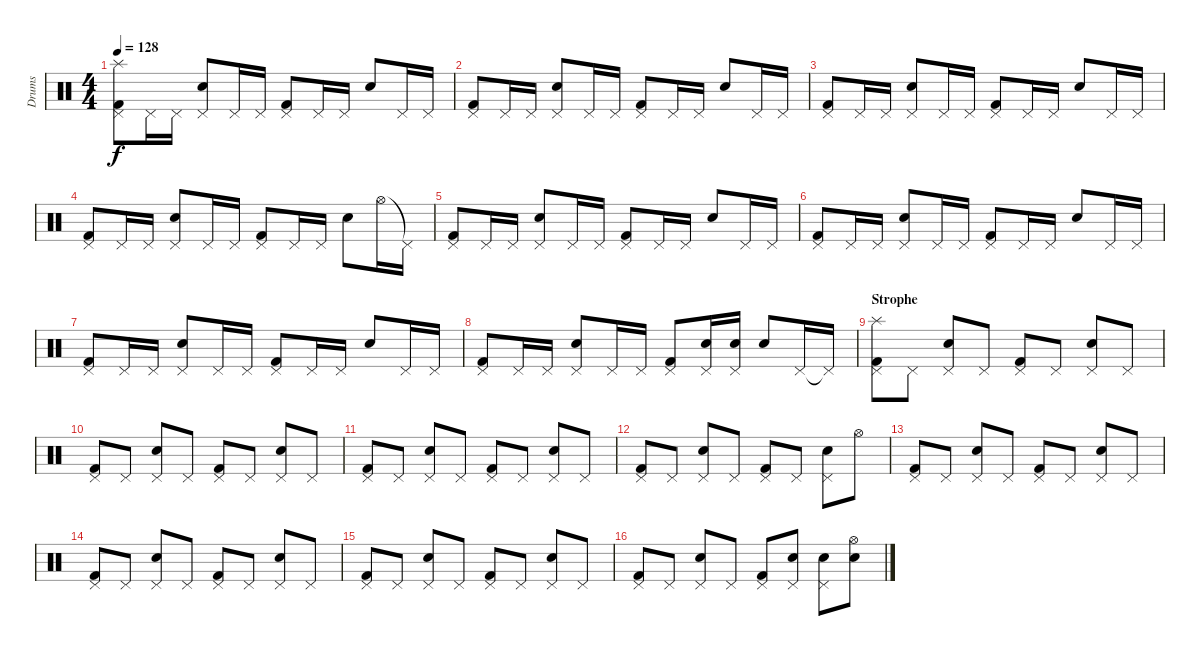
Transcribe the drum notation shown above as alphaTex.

\track ("Drums" "Drums") {instrument percussion}
\staff {score}
\articulation defaults
\ts (4 4)
\tempo 128
\clef neutral
\ks c
("Splash (hit)" "Kick (hit) 2" "Pedal Hi-Hat (hit)").8{dy f} "Pedal Hi-Hat (hit)".16 "Pedal Hi-Hat (hit)".16 ("Snare (hit) 2" "Pedal Hi-Hat (hit)").8 "Pedal Hi-Hat (hit)".16 "Pedal Hi-Hat (hit)".16 ("Kick (hit) 2" "Pedal Hi-Hat (hit)").8 "Pedal Hi-Hat (hit)".16 "Pedal Hi-Hat (hit)".16 "Snare (hit) 2".8 "Pedal Hi-Hat (hit)".16 "Pedal Hi-Hat (hit)".16 |
("Kick (hit) 2" "Pedal Hi-Hat (hit)").8 "Pedal Hi-Hat (hit)".16 "Pedal Hi-Hat (hit)".16 ("Snare (hit) 2" "Pedal Hi-Hat (hit)").8 "Pedal Hi-Hat (hit)".16 "Pedal Hi-Hat (hit)".16 ("Kick (hit) 2" "Pedal Hi-Hat (hit)").8 "Pedal Hi-Hat (hit)".16 "Pedal Hi-Hat (hit)".16 "Snare (hit) 2".8 "Pedal Hi-Hat (hit)".16 "Pedal Hi-Hat (hit)".16 |
("Kick (hit) 2" "Pedal Hi-Hat (hit)").8 "Pedal Hi-Hat (hit)".16 "Pedal Hi-Hat (hit)".16 ("Snare (hit) 2" "Pedal Hi-Hat (hit)").8 "Pedal Hi-Hat (hit)".16 "Pedal Hi-Hat (hit)".16 ("Kick (hit) 2" "Pedal Hi-Hat (hit)").8 "Pedal Hi-Hat (hit)".16 "Pedal Hi-Hat (hit)".16 "Snare (hit) 2".8 "Pedal Hi-Hat (hit)".16 "Pedal Hi-Hat (hit)".16 |
("Kick (hit) 2" "Pedal Hi-Hat (hit)").8 "Pedal Hi-Hat (hit)".16 "Pedal Hi-Hat (hit)".16 ("Snare (hit) 2" "Pedal Hi-Hat (hit)").8 "Pedal Hi-Hat (hit)".16 "Pedal Hi-Hat (hit)".16 ("Kick (hit) 2" "Pedal Hi-Hat (hit)").8 "Pedal Hi-Hat (hit)".16 "Pedal Hi-Hat (hit)".16 "Snare (hit) 2".8 "Hi-Hat (open)".16 "Pedal Hi-Hat (hit)"{t}.16 |
("Kick (hit) 2" "Pedal Hi-Hat (hit)").8 "Pedal Hi-Hat (hit)".16 "Pedal Hi-Hat (hit)".16 ("Snare (hit) 2" "Pedal Hi-Hat (hit)").8 "Pedal Hi-Hat (hit)".16 "Pedal Hi-Hat (hit)".16 ("Kick (hit) 2" "Pedal Hi-Hat (hit)").8 "Pedal Hi-Hat (hit)".16 "Pedal Hi-Hat (hit)".16 "Snare (hit) 2".8 "Pedal Hi-Hat (hit)".16 "Pedal Hi-Hat (hit)".16 |
("Kick (hit) 2" "Pedal Hi-Hat (hit)").8 "Pedal Hi-Hat (hit)".16 "Pedal Hi-Hat (hit)".16 ("Snare (hit) 2" "Pedal Hi-Hat (hit)").8 "Pedal Hi-Hat (hit)".16 "Pedal Hi-Hat (hit)".16 ("Kick (hit) 2" "Pedal Hi-Hat (hit)").8 "Pedal Hi-Hat (hit)".16 "Pedal Hi-Hat (hit)".16 "Snare (hit) 2".8 "Pedal Hi-Hat (hit)".16 "Pedal Hi-Hat (hit)".16 |
("Kick (hit) 2" "Pedal Hi-Hat (hit)").8 "Pedal Hi-Hat (hit)".16 "Pedal Hi-Hat (hit)".16 ("Snare (hit) 2" "Pedal Hi-Hat (hit)").8 "Pedal Hi-Hat (hit)".16 "Pedal Hi-Hat (hit)".16 ("Kick (hit) 2" "Pedal Hi-Hat (hit)").8 "Pedal Hi-Hat (hit)".16 "Pedal Hi-Hat (hit)".16 "Snare (hit) 2".8 "Pedal Hi-Hat (hit)".16 "Pedal Hi-Hat (hit)".16 |
("Kick (hit) 2" "Pedal Hi-Hat (hit)").8 "Pedal Hi-Hat (hit)".16 "Pedal Hi-Hat (hit)".16 ("Snare (hit) 2" "Pedal Hi-Hat (hit)").8 "Pedal Hi-Hat (hit)".16 "Pedal Hi-Hat (hit)".16 ("Kick (hit) 2" "Pedal Hi-Hat (hit)").8 ("Snare (hit) 2" "Pedal Hi-Hat (hit)").16 ("Snare (hit) 2" "Pedal Hi-Hat (hit)").16 "Snare (hit) 2".8 "Pedal Hi-Hat (hit)".16 "Pedal Hi-Hat (hit)"{t}.16 |
\section ("" "Strophe")
("Pedal Hi-Hat (hit)" "Splash (hit)" "Kick (hit) 2").8 "Pedal Hi-Hat (hit)".8 ("Pedal Hi-Hat (hit)" "Snare (hit) 2").8 "Pedal Hi-Hat (hit)".8 ("Pedal Hi-Hat (hit)" "Kick (hit) 2").8 "Pedal Hi-Hat (hit)".8 ("Pedal Hi-Hat (hit)" "Snare (hit) 2").8 "Pedal Hi-Hat (hit)".8 |
("Pedal Hi-Hat (hit)" "Kick (hit) 2").8 "Pedal Hi-Hat (hit)".8 ("Pedal Hi-Hat (hit)" "Snare (hit) 2").8 "Pedal Hi-Hat (hit)".8 ("Pedal Hi-Hat (hit)" "Kick (hit) 2").8 "Pedal Hi-Hat (hit)".8 ("Pedal Hi-Hat (hit)" "Snare (hit) 2").8 "Pedal Hi-Hat (hit)".8 |
("Pedal Hi-Hat (hit)" "Kick (hit) 2").8 "Pedal Hi-Hat (hit)".8 ("Pedal Hi-Hat (hit)" "Snare (hit) 2").8 "Pedal Hi-Hat (hit)".8 ("Pedal Hi-Hat (hit)" "Kick (hit) 2").8 "Pedal Hi-Hat (hit)".8 ("Pedal Hi-Hat (hit)" "Snare (hit) 2").8 "Pedal Hi-Hat (hit)".8 |
("Pedal Hi-Hat (hit)" "Kick (hit) 2").8 "Pedal Hi-Hat (hit)".8 ("Pedal Hi-Hat (hit)" "Snare (hit) 2").8 "Pedal Hi-Hat (hit)".8 ("Pedal Hi-Hat (hit)" "Kick (hit) 2").8 "Pedal Hi-Hat (hit)".8 ("Pedal Hi-Hat (hit)" "Snare (hit) 2").8 "Hi-Hat (open)".8 |
("Pedal Hi-Hat (hit)" "Kick (hit) 2").8 "Pedal Hi-Hat (hit)".8 ("Pedal Hi-Hat (hit)" "Snare (hit) 2").8 "Pedal Hi-Hat (hit)".8 ("Pedal Hi-Hat (hit)" "Kick (hit) 2").8 "Pedal Hi-Hat (hit)".8 ("Pedal Hi-Hat (hit)" "Snare (hit) 2").8 "Pedal Hi-Hat (hit)".8 |
("Pedal Hi-Hat (hit)" "Kick (hit) 2").8 "Pedal Hi-Hat (hit)".8 ("Pedal Hi-Hat (hit)" "Snare (hit) 2").8 "Pedal Hi-Hat (hit)".8 ("Pedal Hi-Hat (hit)" "Kick (hit) 2").8 "Pedal Hi-Hat (hit)".8 ("Pedal Hi-Hat (hit)" "Snare (hit) 2").8 "Pedal Hi-Hat (hit)".8 |
("Pedal Hi-Hat (hit)" "Kick (hit) 2").8 "Pedal Hi-Hat (hit)".8 ("Pedal Hi-Hat (hit)" "Snare (hit) 2").8 "Pedal Hi-Hat (hit)".8 ("Pedal Hi-Hat (hit)" "Kick (hit) 2").8 "Pedal Hi-Hat (hit)".8 ("Pedal Hi-Hat (hit)" "Snare (hit) 2").8 "Pedal Hi-Hat (hit)".8 |
("Pedal Hi-Hat (hit)" "Kick (hit) 2").8 "Pedal Hi-Hat (hit)".8 ("Pedal Hi-Hat (hit)" "Snare (hit) 2").8 "Pedal Hi-Hat (hit)".8 ("Pedal Hi-Hat (hit)" "Kick (hit) 2").8 ("Pedal Hi-Hat (hit)" "Snare (hit) 2").8 ("Pedal Hi-Hat (hit)" "Snare (hit) 2").8 ("Hi-Hat (open)" "Snare (hit) 2").8
